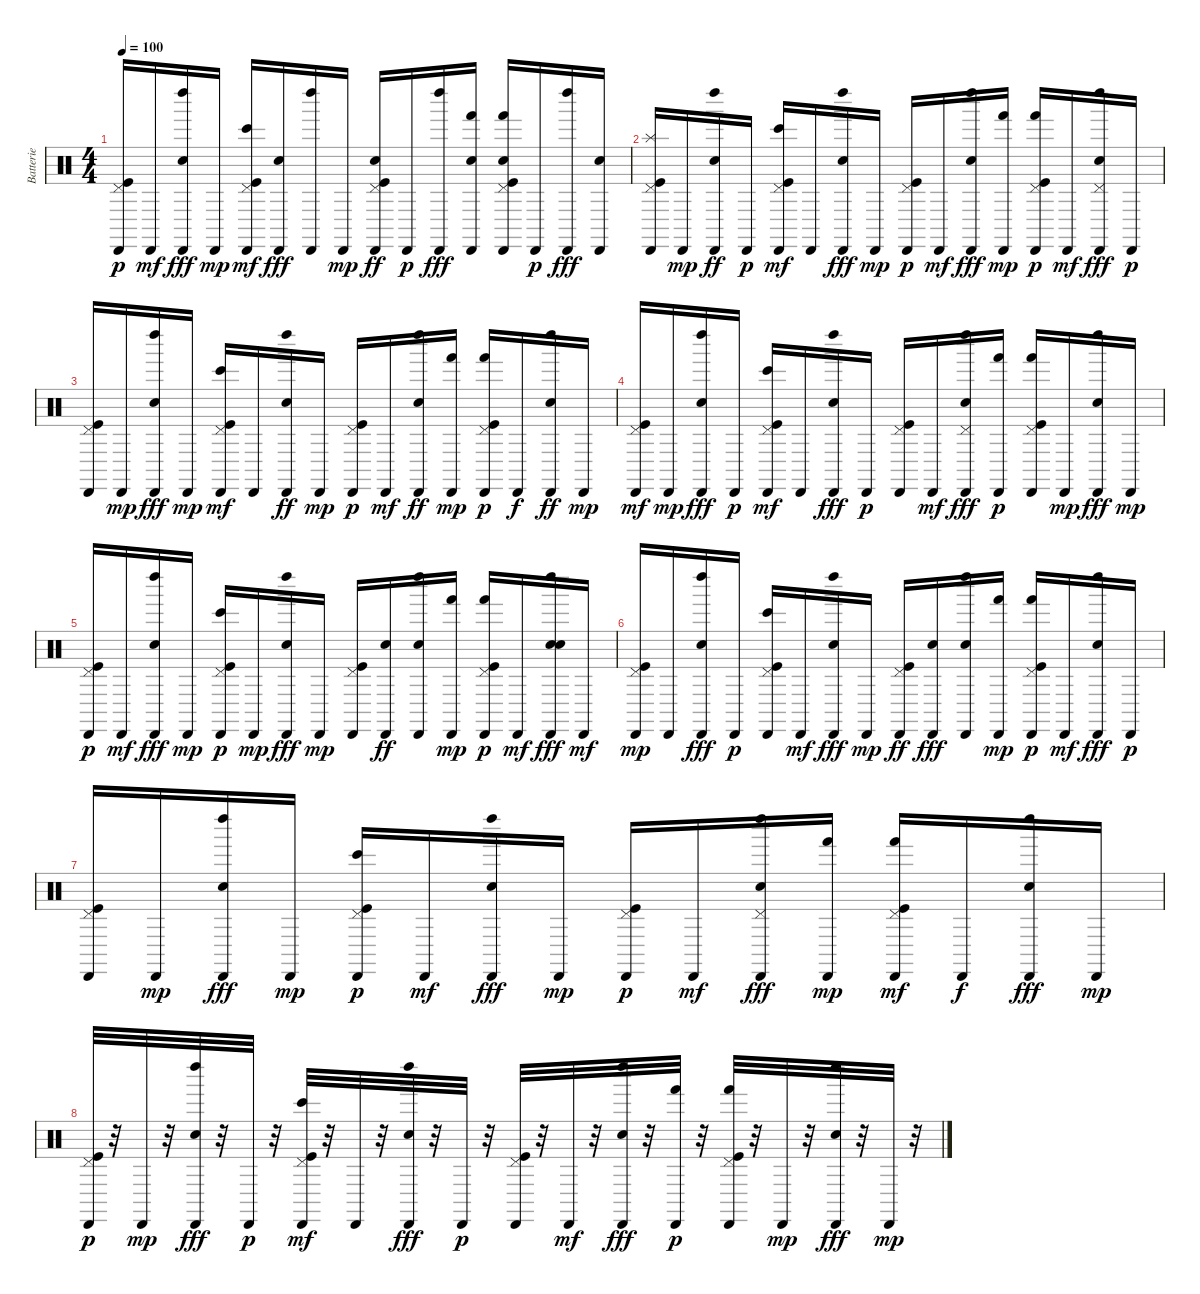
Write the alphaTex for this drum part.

\track ("Batterie" "Batterie") {instrument percussion}
\staff {score}
\articulation defaults
\ts (4 4)
\tempo 100
\clef neutral
\ks c
("Kick (hit)" "Pedal Hi-Hat (hit)" "Cabasa (hit)").16{dy p} "Cabasa (hit)".16{dy mf} ("Cabasa (hit)" "Left Maraca (hit)" "Hand Clap (hit)").16{dy fff} "Cabasa (hit)".16{dy mp} ("Pedal Hi-Hat (hit)" "Kick (hit)" "Cabasa (hit)" "Bongo High (hit)").16{dy mf} ("Cabasa (hit)" "Hand Clap (hit)").16{dy fff} ("Cabasa (hit)" "Left Maraca (hit)").16 "Cabasa (hit)".16{dy mp} ("Pedal Hi-Hat (hit)" "Kick (hit)" "Hand Clap (hit)" "Cabasa (hit)").16{dy ff} "Cabasa (hit)".16{dy p} ("Cabasa (hit)" "Left Maraca (hit)").16{dy fff} ("Hand (hit)" "Cabasa (hit)" "Hand Clap (hit)").16 ("Hand (hit)" "Pedal Hi-Hat (hit)" "Kick (hit)" "Cabasa (hit)" "Hand Clap (hit)").16 "Cabasa (hit)".16{dy p} ("Cabasa (hit)" "Left Maraca (hit)").16{dy fff} ("Cabasa (hit)" "Hand Clap (hit)").16 |
("Pedal Hi-Hat (hit)" "Kick (hit)" "Cabasa (hit)" "Splash (hit)").16 "Cabasa (hit)".16{dy mp} ("Left Maraca (hit)" "Cabasa (hit)" "Hand Clap (hit)").16{dy ff} "Cabasa (hit)".16{dy p} ("Pedal Hi-Hat (hit)" "Cabasa (hit)" "Bongo High (hit)" "Kick (hit)").16{dy mf} "Cabasa (hit)".16 ("Left Maraca (hit)" "Cabasa (hit)" "Hand Clap (hit)").16{dy fff} "Cabasa (hit)".16{dy mp} ("Pedal Hi-Hat (hit)" "Cabasa (hit)" "Kick (hit)").16{dy p} "Cabasa (hit)".16{dy mf} ("Left Maraca (hit)" "Hand Clap (hit)" "Cabasa (hit)").16{dy fff} ("Hand (hit)" "Cabasa (hit)").16{dy mp} ("Pedal Hi-Hat (hit)" "Hand (hit)" "Kick (hit)" "Cabasa (hit)").16{dy p} "Cabasa (hit)".16{dy mf} ("Left Maraca (hit)" "Pedal Hi-Hat (hit)" "Hand Clap (hit)" "Cabasa (hit)").16{dy fff} "Cabasa (hit)".16{dy p} |
("Kick (hit)" "Pedal Hi-Hat (hit)" "Cabasa (hit)").16 "Cabasa (hit)".16{dy mp} ("Left Maraca (hit)" "Cabasa (hit)" "Hand Clap (hit)").16{dy fff} "Cabasa (hit)".16{dy mp} ("Bongo High (hit)" "Cabasa (hit)" "Kick (hit)" "Pedal Hi-Hat (hit)").16{dy mf} "Cabasa (hit)".16 ("Cabasa (hit)" "Left Maraca (hit)" "Hand Clap (hit)").16{dy ff} "Cabasa (hit)".16{dy mp} ("Cabasa (hit)" "Pedal Hi-Hat (hit)" "Kick (hit)").16{dy p} "Cabasa (hit)".16{dy mf} ("Left Maraca (hit)" "Cabasa (hit)" "Hand Clap (hit)").16{dy ff} ("Cabasa (hit)" "Hand (hit)").16{dy mp} ("Kick (hit)" "Pedal Hi-Hat (hit)" "Hand (hit)" "Cabasa (hit)").16{dy p} "Cabasa (hit)".16{dy f} ("Left Maraca (hit)" "Hand Clap (hit)" "Cabasa (hit)").16{dy ff} "Cabasa (hit)".16{dy mp} |
("Kick (hit)" "Cabasa (hit)" "Pedal Hi-Hat (hit)").16{dy mf} "Cabasa (hit)".16{dy mp} ("Left Maraca (hit)" "Cabasa (hit)" "Hand Clap (hit)").16{dy fff} "Cabasa (hit)".16{dy p} ("Kick (hit)" "Pedal Hi-Hat (hit)" "Cabasa (hit)" "Bongo High (hit)").16{dy mf} "Cabasa (hit)".16 ("Cabasa (hit)" "Left Maraca (hit)" "Hand Clap (hit)").16{dy fff} "Cabasa (hit)".16{dy p} ("Pedal Hi-Hat (hit)" "Kick (hit)" "Cabasa (hit)").16 "Cabasa (hit)".16{dy mf} ("Pedal Hi-Hat (hit)" "Hand Clap (hit)" "Left Maraca (hit)" "Cabasa (hit)").16{dy fff} ("Hand (hit)" "Cabasa (hit)").16{dy p} ("Hand (hit)" "Kick (hit)" "Pedal Hi-Hat (hit)" "Cabasa (hit)").16 "Cabasa (hit)".16{dy mp} ("Cabasa (hit)" "Hand Clap (hit)" "Left Maraca (hit)").16{dy fff} "Cabasa (hit)".16{dy mp} |
("Pedal Hi-Hat (hit)" "Cabasa (hit)" "Kick (hit)").16{dy p} "Cabasa (hit)".16{dy mf} ("Cabasa (hit)" "Hand Clap (hit)" "Left Maraca (hit)").16{dy fff} "Cabasa (hit)".16{dy mp} ("Bongo High (hit)" "Cabasa (hit)" "Kick (hit)" "Pedal Hi-Hat (hit)").16{dy p} "Cabasa (hit)".16{dy mp} ("Cabasa (hit)" "Hand Clap (hit)" "Left Maraca (hit)").16{dy fff} "Cabasa (hit)".16{dy mp} ("Cabasa (hit)" "Kick (hit)" "Pedal Hi-Hat (hit)").16 ("Cabasa (hit)" "Hand Clap (hit)").16{dy ff} ("Cabasa (hit)" "Left Maraca (hit)" "Hand Clap (hit)").16 ("Cabasa (hit)" "Hand (hit)").16{dy mp} ("Kick (hit)" "Hand (hit)" "Cabasa (hit)" "Pedal Hi-Hat (hit)").16{dy p} "Cabasa (hit)".16{dy mf} ("Cabasa (hit)" "Hand Clap (hit)" "Hand Clap (hit)" "Left Maraca (hit)").16{dy fff} "Cabasa (hit)".16{dy mf} |
("Pedal Hi-Hat (hit)" "Kick (hit)" "Cabasa (hit)").16{dy mp} "Cabasa (hit)".16 ("Cabasa (hit)" "Left Maraca (hit)" "Hand Clap (hit)").16{dy fff} "Cabasa (hit)".16{dy p} ("Pedal Hi-Hat (hit)" "Cabasa (hit)" "Bongo High (hit)" "Kick (hit)").16 "Cabasa (hit)".16{dy mf} ("Cabasa (hit)" "Hand Clap (hit)" "Left Maraca (hit)").16{dy fff} "Cabasa (hit)".16{dy mp} ("Cabasa (hit)" "Pedal Hi-Hat (hit)" "Kick (hit)").16{dy ff} ("Cabasa (hit)" "Hand Clap (hit)").16{dy fff} ("Left Maraca (hit)" "Hand Clap (hit)" "Cabasa (hit)").16 ("Hand (hit)" "Cabasa (hit)").16{dy mp} ("Hand (hit)" "Pedal Hi-Hat (hit)" "Kick (hit)" "Cabasa (hit)").16{dy p} "Cabasa (hit)".16{dy mf} ("Left Maraca (hit)" "Hand Clap (hit)" "Cabasa (hit)").16{dy fff} "Cabasa (hit)".16{dy p} |
("Pedal Hi-Hat (hit)" "Cabasa (hit)" "Kick (hit)").16 "Cabasa (hit)".16{dy mp} ("Left Maraca (hit)" "Hand Clap (hit)" "Cabasa (hit)").16{dy fff} "Cabasa (hit)".16{dy mp} ("Pedal Hi-Hat (hit)" "Bongo High (hit)" "Kick (hit)" "Cabasa (hit)").16{dy p} "Cabasa (hit)".16{dy mf} ("Cabasa (hit)" "Left Maraca (hit)" "Hand Clap (hit)").16{dy fff} "Cabasa (hit)".16{dy mp} ("Pedal Hi-Hat (hit)" "Cabasa (hit)" "Kick (hit)").16{dy p} "Cabasa (hit)".16{dy mf} ("Left Maraca (hit)" "Pedal Hi-Hat (hit)" "Cabasa (hit)" "Hand Clap (hit)").16{dy fff} ("Cabasa (hit)" "Hand (hit)").16{dy mp} ("Pedal Hi-Hat (hit)" "Hand (hit)" "Cabasa (hit)" "Kick (hit)").16{dy mf} "Cabasa (hit)".16{dy f} ("Hand Clap (hit)" "Cabasa (hit)" "Left Maraca (hit)").16{dy fff} "Cabasa (hit)".16{dy mp} |
("Cabasa (hit)" "Pedal Hi-Hat (hit)" "Kick (hit)").32{dy p} r.32 "Cabasa (hit)".32{dy mp} r.32 ("Left Maraca (hit)" "Cabasa (hit)" "Hand Clap (hit)").32{dy fff} r.32 "Cabasa (hit)".32{dy p} r.32 ("Bongo High (hit)" "Cabasa (hit)" "Kick (hit)" "Pedal Hi-Hat (hit)").32{dy mf} r.32 "Cabasa (hit)".32 r.32 ("Cabasa (hit)" "Hand Clap (hit)" "Left Maraca (hit)").32{dy fff} r.32 "Cabasa (hit)".32{dy p} r.32 ("Pedal Hi-Hat (hit)" "Cabasa (hit)" "Kick (hit)").32 r.32 "Cabasa (hit)".32{dy mf} r.32 ("Hand Clap (hit)" "Left Maraca (hit)" "Cabasa (hit)").32{dy fff} r.32 ("Hand (hit)" "Cabasa (hit)").32{dy p} r.32 ("Hand (hit)" "Pedal Hi-Hat (hit)" "Kick (hit)" "Cabasa (hit)").32 r.32 "Cabasa (hit)".32{dy mp} r.32 ("Hand Clap (hit)" "Cabasa (hit)" "Left Maraca (hit)").32{dy fff} r.32 "Cabasa (hit)".32{dy mp} r.32
